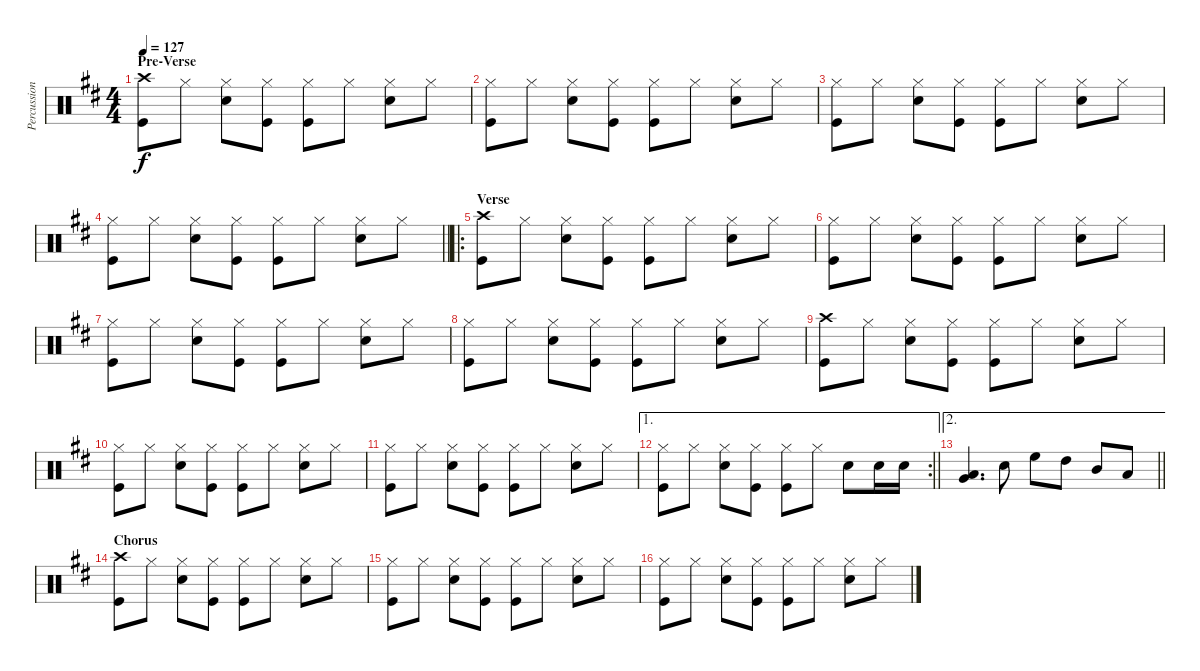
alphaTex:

\track ("Percussion" "Percussion") {instrument percussion}
\staff {score}
\articulation defaults
\ts (4 4)
\section ("" "Pre-Verse")
\tempo 127
\clef neutral
\ks d
("Crash high (hit)" "Kick (hit)").8{dy f} "Hi-Hat (closed)".8 ("Hi-Hat (closed)" "Snare (hit) 2").8 ("Hi-Hat (closed)" "Kick (hit)").8 ("Hi-Hat (closed)" "Kick (hit)").8 "Hi-Hat (closed)".8 ("Hi-Hat (closed)" "Snare (hit) 2").8 "Hi-Hat (closed)".8 |
("Hi-Hat (closed)" "Kick (hit)").8 "Hi-Hat (closed)".8 ("Hi-Hat (closed)" "Snare (hit) 2").8 ("Hi-Hat (closed)" "Kick (hit)").8 ("Hi-Hat (closed)" "Kick (hit)").8 "Hi-Hat (closed)".8 ("Hi-Hat (closed)" "Snare (hit) 2").8 "Hi-Hat (closed)".8 |
("Hi-Hat (closed)" "Kick (hit)").8 "Hi-Hat (closed)".8 ("Hi-Hat (closed)" "Snare (hit) 2").8 ("Hi-Hat (closed)" "Kick (hit)").8 ("Hi-Hat (closed)" "Kick (hit)").8 "Hi-Hat (closed)".8 ("Hi-Hat (closed)" "Snare (hit) 2").8 "Hi-Hat (closed)".8 |
\barLineRight lightlight
("Hi-Hat (closed)" "Kick (hit)").8 "Hi-Hat (closed)".8 ("Hi-Hat (closed)" "Snare (hit) 2").8 ("Hi-Hat (closed)" "Kick (hit)").8 ("Hi-Hat (closed)" "Kick (hit)").8 "Hi-Hat (closed)".8 ("Hi-Hat (closed)" "Snare (hit) 2").8 "Hi-Hat (closed)".8 |
\ro
\section ("" "Verse")
("Crash high (hit)" "Kick (hit)").8 "Hi-Hat (closed)".8 ("Hi-Hat (closed)" "Snare (hit) 2").8 ("Hi-Hat (closed)" "Kick (hit)").8 ("Hi-Hat (closed)" "Kick (hit)").8 "Hi-Hat (closed)".8 ("Hi-Hat (closed)" "Snare (hit) 2").8 "Hi-Hat (closed)".8 |
("Hi-Hat (closed)" "Kick (hit)").8 "Hi-Hat (closed)".8 ("Hi-Hat (closed)" "Snare (hit) 2").8 ("Hi-Hat (closed)" "Kick (hit)").8 ("Hi-Hat (closed)" "Kick (hit)").8 "Hi-Hat (closed)".8 ("Hi-Hat (closed)" "Snare (hit) 2").8 "Hi-Hat (closed)".8 |
("Hi-Hat (closed)" "Kick (hit)").8 "Hi-Hat (closed)".8 ("Hi-Hat (closed)" "Snare (hit) 2").8 ("Hi-Hat (closed)" "Kick (hit)").8 ("Hi-Hat (closed)" "Kick (hit)").8 "Hi-Hat (closed)".8 ("Hi-Hat (closed)" "Snare (hit) 2").8 "Hi-Hat (closed)".8 |
("Hi-Hat (closed)" "Kick (hit)").8 "Hi-Hat (closed)".8 ("Hi-Hat (closed)" "Snare (hit) 2").8 ("Hi-Hat (closed)" "Kick (hit)").8 ("Hi-Hat (closed)" "Kick (hit)").8 "Hi-Hat (closed)".8 ("Hi-Hat (closed)" "Snare (hit) 2").8 "Hi-Hat (closed)".8 |
("Crash high (hit)" "Kick (hit)").8 "Hi-Hat (closed)".8 ("Hi-Hat (closed)" "Snare (hit) 2").8 ("Hi-Hat (closed)" "Kick (hit)").8 ("Hi-Hat (closed)" "Kick (hit)").8 "Hi-Hat (closed)".8 ("Hi-Hat (closed)" "Snare (hit) 2").8 "Hi-Hat (closed)".8 |
("Hi-Hat (closed)" "Kick (hit)").8 "Hi-Hat (closed)".8 ("Hi-Hat (closed)" "Snare (hit) 2").8 ("Hi-Hat (closed)" "Kick (hit)").8 ("Hi-Hat (closed)" "Kick (hit)").8 "Hi-Hat (closed)".8 ("Hi-Hat (closed)" "Snare (hit) 2").8 "Hi-Hat (closed)".8 |
("Hi-Hat (closed)" "Kick (hit)").8 "Hi-Hat (closed)".8 ("Hi-Hat (closed)" "Snare (hit) 2").8 ("Hi-Hat (closed)" "Kick (hit)").8 ("Hi-Hat (closed)" "Kick (hit)").8 "Hi-Hat (closed)".8 ("Hi-Hat (closed)" "Snare (hit) 2").8 "Hi-Hat (closed)".8 |
\ae 1
\rc 2
\barLineRight lightlight
("Hi-Hat (closed)" "Kick (hit)").8 "Hi-Hat (closed)".8 ("Hi-Hat (closed)" "Snare (hit) 2").8 ("Hi-Hat (closed)" "Kick (hit)").8 ("Hi-Hat (closed)" "Kick (hit)").8 "Hi-Hat (closed)".8 "Snare (hit) 2".8 "Snare (hit) 2".16 "Snare (hit) 2".16 |
\ae 2
\barLineRight lightlight
("Very Low Tom (hit)" "Low Floor Tom (hit)").4{d} "Snare (hit) 2".8 "High Floor Tom (hit)".8 "High Tom (hit)".8 "Mid Tom (hit)".8 "Low Tom (hit)".8 |
\section ("" "Chorus")
("Crash high (hit)" "Kick (hit)").8 "Hi-Hat (closed)".8 ("Hi-Hat (closed)" "Snare (hit) 2").8 ("Hi-Hat (closed)" "Kick (hit)").8 ("Hi-Hat (closed)" "Kick (hit)").8 "Hi-Hat (closed)".8 ("Hi-Hat (closed)" "Snare (hit) 2").8 "Hi-Hat (closed)".8 |
("Hi-Hat (closed)" "Kick (hit)").8 "Hi-Hat (closed)".8 ("Hi-Hat (closed)" "Snare (hit) 2").8 ("Hi-Hat (closed)" "Kick (hit)").8 ("Hi-Hat (closed)" "Kick (hit)").8 "Hi-Hat (closed)".8 ("Hi-Hat (closed)" "Snare (hit) 2").8 "Hi-Hat (closed)".8 |
("Hi-Hat (closed)" "Kick (hit)").8 "Hi-Hat (closed)".8 ("Hi-Hat (closed)" "Snare (hit) 2").8 ("Hi-Hat (closed)" "Kick (hit)").8 ("Hi-Hat (closed)" "Kick (hit)").8 "Hi-Hat (closed)".8 ("Hi-Hat (closed)" "Snare (hit) 2").8 "Hi-Hat (closed)".8
